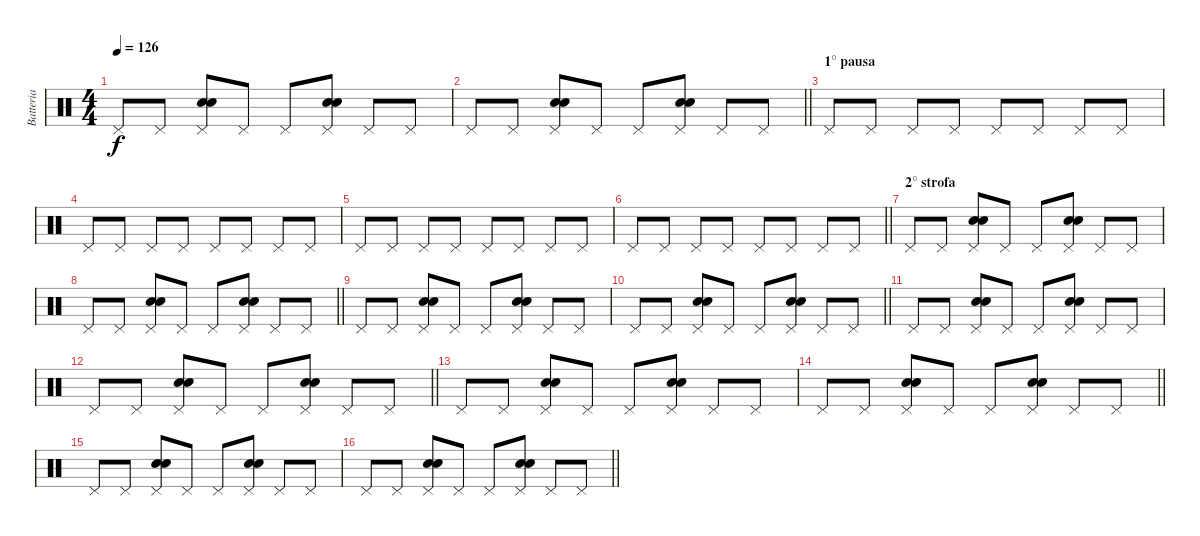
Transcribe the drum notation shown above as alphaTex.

\track ("Batteria" "Batteria") {instrument percussion}
\staff {score}
\articulation defaults
\ts (4 4)
\tempo 126
\clef neutral
\ks c "Pedal Hi-Hat (hit)".8{dy f} "Pedal Hi-Hat (hit)".8
("Pedal Hi-Hat (hit)" "Snare (hit) 2" "Electric Snare (hit)").8 "Pedal Hi-Hat (hit)".8 "Pedal Hi-Hat (hit)".8 ("Pedal Hi-Hat (hit)" "Snare (hit) 2" "Electric Snare (hit)").8 "Pedal Hi-Hat (hit)".8 "Pedal Hi-Hat (hit)".8 |
\barLineRight lightlight "Pedal Hi-Hat (hit)".8 "Pedal Hi-Hat (hit)".8
("Pedal Hi-Hat (hit)" "Snare (hit) 2" "Electric Snare (hit)").8 "Pedal Hi-Hat (hit)".8 "Pedal Hi-Hat (hit)".8 ("Pedal Hi-Hat (hit)" "Snare (hit) 2" "Electric Snare (hit)").8 "Pedal Hi-Hat (hit)".8 "Pedal Hi-Hat (hit)".8 |
\section ("" "1° pausa")
"Pedal Hi-Hat (hit)".8 "Pedal Hi-Hat (hit)".8 "Pedal Hi-Hat (hit)".8 "Pedal Hi-Hat (hit)".8 "Pedal Hi-Hat (hit)".8 "Pedal Hi-Hat (hit)".8 "Pedal Hi-Hat (hit)".8 "Pedal Hi-Hat (hit)".8 |
"Pedal Hi-Hat (hit)".8 "Pedal Hi-Hat (hit)".8 "Pedal Hi-Hat (hit)".8 "Pedal Hi-Hat (hit)".8 "Pedal Hi-Hat (hit)".8 "Pedal Hi-Hat (hit)".8 "Pedal Hi-Hat (hit)".8 "Pedal Hi-Hat (hit)".8 |
"Pedal Hi-Hat (hit)".8 "Pedal Hi-Hat (hit)".8 "Pedal Hi-Hat (hit)".8 "Pedal Hi-Hat (hit)".8 "Pedal Hi-Hat (hit)".8 "Pedal Hi-Hat (hit)".8 "Pedal Hi-Hat (hit)".8 "Pedal Hi-Hat (hit)".8 |
\barLineRight lightlight "Pedal Hi-Hat (hit)".8 "Pedal Hi-Hat (hit)".8 "Pedal Hi-Hat (hit)".8 "Pedal Hi-Hat (hit)".8 "Pedal Hi-Hat (hit)".8 "Pedal Hi-Hat (hit)".8 "Pedal Hi-Hat (hit)".8 "Pedal Hi-Hat (hit)".8
|
\section ("" "2° strofa")
"Pedal Hi-Hat (hit)".8 "Pedal Hi-Hat (hit)".8 ("Pedal Hi-Hat (hit)" "Snare (hit) 2" "Electric Snare (hit)").8 "Pedal Hi-Hat (hit)".8 "Pedal Hi-Hat (hit)".8 ("Pedal Hi-Hat (hit)" "Snare (hit) 2" "Electric Snare (hit)").8 "Pedal Hi-Hat (hit)".8 "Pedal Hi-Hat (hit)".8 |
\barLineRight lightlight "Pedal Hi-Hat (hit)".8 "Pedal Hi-Hat (hit)".8
("Pedal Hi-Hat (hit)" "Snare (hit) 2" "Electric Snare (hit)").8 "Pedal Hi-Hat (hit)".8 "Pedal Hi-Hat (hit)".8 ("Pedal Hi-Hat (hit)" "Snare (hit) 2" "Electric Snare (hit)").8 "Pedal Hi-Hat (hit)".8 "Pedal Hi-Hat (hit)".8 |
"Pedal Hi-Hat (hit)".8 "Pedal Hi-Hat (hit)".8 ("Pedal Hi-Hat (hit)" "Snare (hit) 2" "Electric Snare (hit)").8 "Pedal Hi-Hat (hit)".8 "Pedal Hi-Hat (hit)".8 ("Pedal Hi-Hat (hit)" "Snare (hit) 2" "Electric Snare (hit)").8 "Pedal Hi-Hat (hit)".8 "Pedal Hi-Hat (hit)".8 |
\barLineRight lightlight "Pedal Hi-Hat (hit)".8 "Pedal Hi-Hat (hit)".8
("Pedal Hi-Hat (hit)" "Snare (hit) 2" "Electric Snare (hit)").8 "Pedal Hi-Hat (hit)".8 "Pedal Hi-Hat (hit)".8 ("Pedal Hi-Hat (hit)" "Snare (hit) 2" "Electric Snare (hit)").8 "Pedal Hi-Hat (hit)".8 "Pedal Hi-Hat (hit)".8 |
"Pedal Hi-Hat (hit)".8 "Pedal Hi-Hat (hit)".8 ("Pedal Hi-Hat (hit)" "Snare (hit) 2" "Electric Snare (hit)").8 "Pedal Hi-Hat (hit)".8 "Pedal Hi-Hat (hit)".8 ("Pedal Hi-Hat (hit)" "Snare (hit) 2" "Electric Snare (hit)").8 "Pedal Hi-Hat (hit)".8 "Pedal Hi-Hat (hit)".8 |
\barLineRight lightlight "Pedal Hi-Hat (hit)".8 "Pedal Hi-Hat (hit)".8
("Pedal Hi-Hat (hit)" "Snare (hit) 2" "Electric Snare (hit)").8 "Pedal Hi-Hat (hit)".8 "Pedal Hi-Hat (hit)".8 ("Pedal Hi-Hat (hit)" "Snare (hit) 2" "Electric Snare (hit)").8 "Pedal Hi-Hat (hit)".8 "Pedal Hi-Hat (hit)".8 |
"Pedal Hi-Hat (hit)".8 "Pedal Hi-Hat (hit)".8 ("Pedal Hi-Hat (hit)" "Snare (hit) 2" "Electric Snare (hit)").8 "Pedal Hi-Hat (hit)".8 "Pedal Hi-Hat (hit)".8 ("Pedal Hi-Hat (hit)" "Snare (hit) 2" "Electric Snare (hit)").8 "Pedal Hi-Hat (hit)".8 "Pedal Hi-Hat (hit)".8 |
\barLineRight lightlight "Pedal Hi-Hat (hit)".8 "Pedal Hi-Hat (hit)".8
("Pedal Hi-Hat (hit)" "Snare (hit) 2" "Electric Snare (hit)").8 "Pedal Hi-Hat (hit)".8 "Pedal Hi-Hat (hit)".8 ("Pedal Hi-Hat (hit)" "Snare (hit) 2" "Electric Snare (hit)").8 "Pedal Hi-Hat (hit)".8 "Pedal Hi-Hat (hit)".8 |
"Pedal Hi-Hat (hit)".8 "Pedal Hi-Hat (hit)".8 ("Pedal Hi-Hat (hit)" "Snare (hit) 2" "Electric Snare (hit)").8 "Pedal Hi-Hat (hit)".8 "Pedal Hi-Hat (hit)".8 ("Pedal Hi-Hat (hit)" "Snare (hit) 2" "Electric Snare (hit)").8 "Pedal Hi-Hat (hit)".8 "Pedal Hi-Hat (hit)".8 |
\barLineRight lightlight "Pedal Hi-Hat (hit)".8 "Pedal Hi-Hat (hit)".8
("Pedal Hi-Hat (hit)" "Snare (hit) 2" "Electric Snare (hit)").8 "Pedal Hi-Hat (hit)".8 "Pedal Hi-Hat (hit)".8 ("Pedal Hi-Hat (hit)" "Snare (hit) 2" "Electric Snare (hit)").8 "Pedal Hi-Hat (hit)".8 "Pedal Hi-Hat (hit)".8
